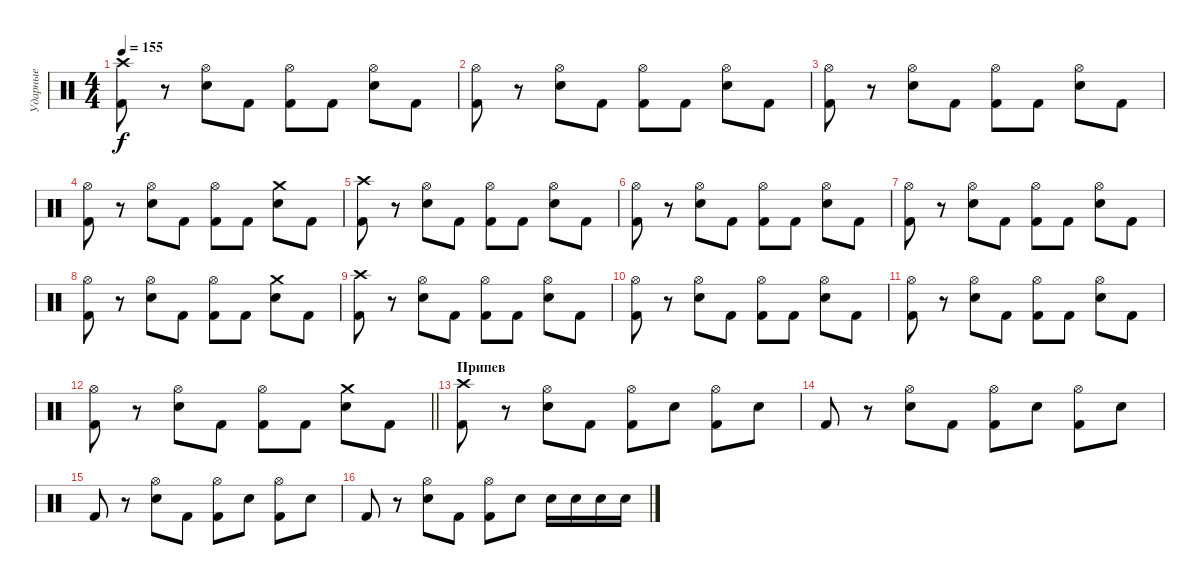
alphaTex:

\track ("Ударные" "Ударные") {instrument percussion}
\staff {score}
\articulation defaults
\ts (4 4)
\tempo 155
\clef neutral
\ks c
("Crash high (hit)" "Kick (hit) 2").8{dy f} r.8 ("Hi-Hat (open)" "Electric Snare (hit)").8 "Kick (hit) 2".8 ("Hi-Hat (open)" "Kick (hit) 2").8 "Kick (hit) 2".8 ("Hi-Hat (open)" "Electric Snare (hit)").8 "Kick (hit) 2".8 |
("Hi-Hat (open)" "Kick (hit) 2").8 r.8 ("Hi-Hat (open)" "Electric Snare (hit)").8 "Kick (hit) 2".8 ("Hi-Hat (open)" "Kick (hit) 2").8 "Kick (hit) 2".8 ("Hi-Hat (open)" "Electric Snare (hit)").8 "Kick (hit) 2".8 |
("Hi-Hat (open)" "Kick (hit) 2").8 r.8 ("Hi-Hat (open)" "Electric Snare (hit)").8 "Kick (hit) 2".8 ("Hi-Hat (open)" "Kick (hit) 2").8 "Kick (hit) 2".8 ("Hi-Hat (open)" "Electric Snare (hit)").8 "Kick (hit) 2".8 |
("Hi-Hat (open)" "Kick (hit) 2").8 r.8 ("Hi-Hat (open)" "Electric Snare (hit)").8 "Kick (hit) 2".8 ("Hi-Hat (open)" "Kick (hit) 2").8 "Kick (hit) 2".8 ("Crash medium (hit)" "Electric Snare (hit)").8 "Kick (hit) 2".8 |
("Crash high (hit)" "Kick (hit) 2").8 r.8 ("Hi-Hat (open)" "Electric Snare (hit)").8 "Kick (hit) 2".8 ("Hi-Hat (open)" "Kick (hit) 2").8 "Kick (hit) 2".8 ("Hi-Hat (open)" "Electric Snare (hit)").8 "Kick (hit) 2".8 |
("Hi-Hat (open)" "Kick (hit) 2").8 r.8 ("Hi-Hat (open)" "Electric Snare (hit)").8 "Kick (hit) 2".8 ("Hi-Hat (open)" "Kick (hit) 2").8 "Kick (hit) 2".8 ("Hi-Hat (open)" "Electric Snare (hit)").8 "Kick (hit) 2".8 |
("Hi-Hat (open)" "Kick (hit) 2").8 r.8 ("Hi-Hat (open)" "Electric Snare (hit)").8 "Kick (hit) 2".8 ("Hi-Hat (open)" "Kick (hit) 2").8 "Kick (hit) 2".8 ("Hi-Hat (open)" "Electric Snare (hit)").8 "Kick (hit) 2".8 |
("Hi-Hat (open)" "Kick (hit) 2").8 r.8 ("Hi-Hat (open)" "Electric Snare (hit)").8 "Kick (hit) 2".8 ("Hi-Hat (open)" "Kick (hit) 2").8 "Kick (hit) 2".8 ("Crash medium (hit)" "Electric Snare (hit)").8 "Kick (hit) 2".8 |
("Crash high (hit)" "Kick (hit) 2").8 r.8 ("Hi-Hat (open)" "Electric Snare (hit)").8 "Kick (hit) 2".8 ("Hi-Hat (open)" "Kick (hit) 2").8 "Kick (hit) 2".8 ("Hi-Hat (open)" "Electric Snare (hit)").8 "Kick (hit) 2".8 |
("Hi-Hat (open)" "Kick (hit) 2").8 r.8 ("Hi-Hat (open)" "Electric Snare (hit)").8 "Kick (hit) 2".8 ("Hi-Hat (open)" "Kick (hit) 2").8 "Kick (hit) 2".8 ("Hi-Hat (open)" "Electric Snare (hit)").8 "Kick (hit) 2".8 |
("Hi-Hat (open)" "Kick (hit) 2").8 r.8 ("Hi-Hat (open)" "Electric Snare (hit)").8 "Kick (hit) 2".8 ("Hi-Hat (open)" "Kick (hit) 2").8 "Kick (hit) 2".8 ("Hi-Hat (open)" "Electric Snare (hit)").8 "Kick (hit) 2".8 |
\barLineRight lightlight
("Hi-Hat (open)" "Kick (hit) 2").8 r.8 ("Hi-Hat (open)" "Electric Snare (hit)").8 "Kick (hit) 2".8 ("Hi-Hat (open)" "Kick (hit) 2").8 "Kick (hit) 2".8 ("Crash medium (hit)" "Electric Snare (hit)").8 "Kick (hit) 2".8 |
\section ("" "Припев")
("Crash high (hit)" "Kick (hit) 2").8 r.8 ("Hi-Hat (open)" "Electric Snare (hit)").8 "Kick (hit) 2".8 ("Hi-Hat (open)" "Kick (hit) 2").8 "Electric Snare (hit)".8 ("Hi-Hat (open)" "Kick (hit) 2").8 "Electric Snare (hit)".8 |
"Kick (hit) 2".8 r.8 ("Hi-Hat (open)" "Electric Snare (hit)").8 "Kick (hit) 2".8 ("Hi-Hat (open)" "Kick (hit) 2").8 "Electric Snare (hit)".8 ("Hi-Hat (open)" "Kick (hit) 2").8 "Electric Snare (hit)".8 |
"Kick (hit) 2".8 r.8 ("Hi-Hat (open)" "Electric Snare (hit)").8 "Kick (hit) 2".8 ("Hi-Hat (open)" "Kick (hit) 2").8 "Electric Snare (hit)".8 ("Hi-Hat (open)" "Kick (hit) 2").8 "Electric Snare (hit)".8 |
"Kick (hit) 2".8 r.8 ("Hi-Hat (open)" "Electric Snare (hit)").8 "Kick (hit) 2".8 ("Hi-Hat (open)" "Kick (hit) 2").8 "Electric Snare (hit)".8 "Electric Snare (hit)".16 "Electric Snare (hit)".16 "Electric Snare (hit)".16 "Electric Snare (hit)".16
